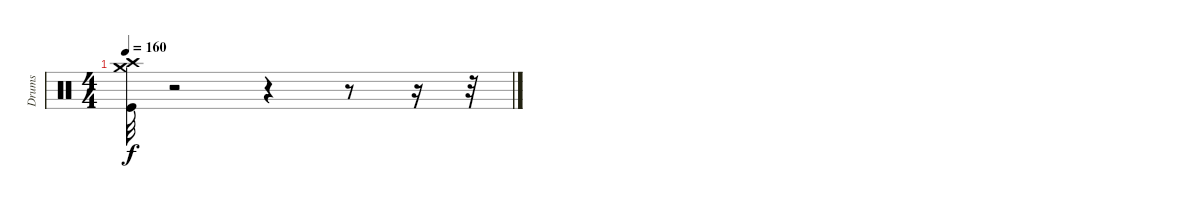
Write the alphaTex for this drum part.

\track ("Drums" "Drums") {instrument percussion}
\staff {score}
\articulation defaults
\ts (4 4)
\tempo 160
\clef neutral
\ks c
("Crash medium (hit)" "Kick (hit)" "Crash high (hit)").32{dy f} r.2 r.4 r.8 r.16 r.32
